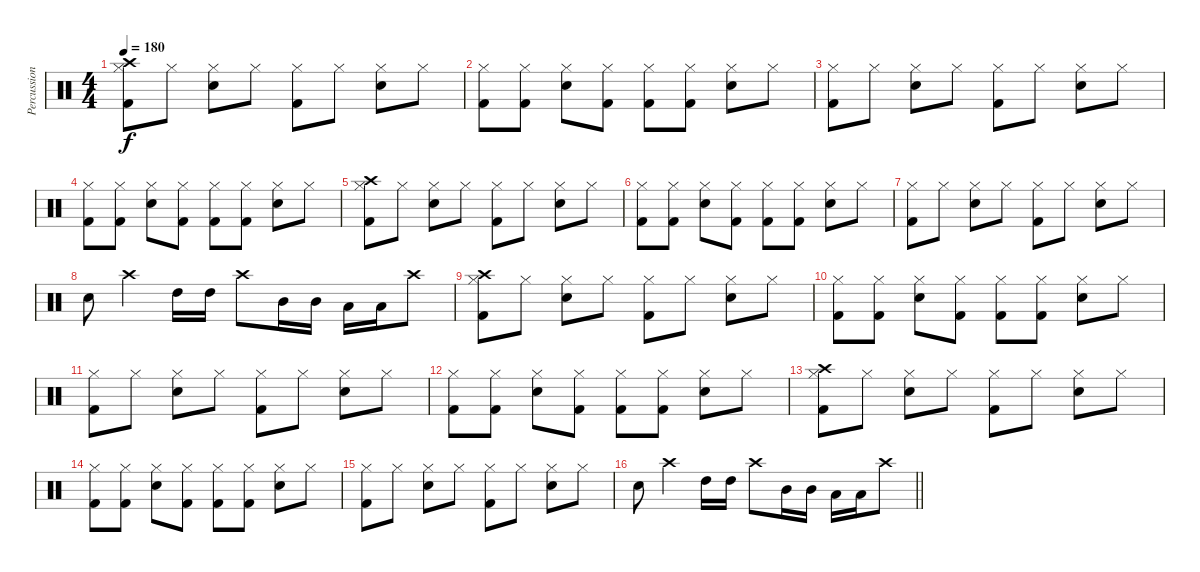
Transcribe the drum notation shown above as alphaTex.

\track ("Percussion" "Percussion") {instrument percussion}
\staff {score}
\articulation defaults
\ts (4 4)
\tempo 180
\clef neutral
\ks c
("Crash high (hit)" "Hi-Hat (closed)" "Kick (hit) 2").8{dy f} "Hi-Hat (closed)".8 ("Hi-Hat (closed)" "Snare (hit) 2").8 "Hi-Hat (closed)".8 ("Hi-Hat (closed)" "Kick (hit) 2").8 "Hi-Hat (closed)".8 ("Hi-Hat (closed)" "Snare (hit) 2").8 "Hi-Hat (closed)".8 |
("Hi-Hat (closed)" "Kick (hit) 2").8 ("Hi-Hat (closed)" "Kick (hit) 2").8 ("Hi-Hat (closed)" "Snare (hit) 2").8 ("Hi-Hat (closed)" "Kick (hit) 2").8 ("Hi-Hat (closed)" "Kick (hit) 2").8 ("Hi-Hat (closed)" "Kick (hit) 2").8 ("Hi-Hat (closed)" "Snare (hit) 2").8 "Hi-Hat (closed)".8 |
("Hi-Hat (closed)" "Kick (hit) 2").8 "Hi-Hat (closed)".8 ("Hi-Hat (closed)" "Snare (hit) 2").8 "Hi-Hat (closed)".8 ("Hi-Hat (closed)" "Kick (hit) 2").8 "Hi-Hat (closed)".8 ("Hi-Hat (closed)" "Snare (hit) 2").8 "Hi-Hat (closed)".8 |
("Hi-Hat (closed)" "Kick (hit) 2").8 ("Hi-Hat (closed)" "Kick (hit) 2").8 ("Hi-Hat (closed)" "Snare (hit) 2").8 ("Hi-Hat (closed)" "Kick (hit) 2").8 ("Hi-Hat (closed)" "Kick (hit) 2").8 ("Hi-Hat (closed)" "Kick (hit) 2").8 ("Hi-Hat (closed)" "Snare (hit) 2").8 "Hi-Hat (closed)".8 |
("Crash high (hit)" "Hi-Hat (closed)" "Kick (hit) 2").8 "Hi-Hat (closed)".8 ("Hi-Hat (closed)" "Snare (hit) 2").8 "Hi-Hat (closed)".8 ("Hi-Hat (closed)" "Kick (hit) 2").8 "Hi-Hat (closed)".8 ("Hi-Hat (closed)" "Snare (hit) 2").8 "Hi-Hat (closed)".8 |
("Hi-Hat (closed)" "Kick (hit) 2").8 ("Hi-Hat (closed)" "Kick (hit) 2").8 ("Hi-Hat (closed)" "Snare (hit) 2").8 ("Hi-Hat (closed)" "Kick (hit) 2").8 ("Hi-Hat (closed)" "Kick (hit) 2").8 ("Hi-Hat (closed)" "Kick (hit) 2").8 ("Hi-Hat (closed)" "Snare (hit) 2").8 "Hi-Hat (closed)".8 |
("Hi-Hat (closed)" "Kick (hit) 2").8 "Hi-Hat (closed)".8 ("Hi-Hat (closed)" "Snare (hit) 2").8 "Hi-Hat (closed)".8 ("Hi-Hat (closed)" "Kick (hit) 2").8 "Hi-Hat (closed)".8 ("Hi-Hat (closed)" "Snare (hit) 2").8 "Hi-Hat (closed)".8 |
"Snare (hit) 2".8 "Crash high (hit)".4 "High Tom (hit)".16 "High Tom (hit)".16 "Crash high (hit)".8 "Mid Tom (hit)".16 "Mid Tom (hit)".16 "Low Tom (hit)".16 "Low Tom (hit)".16 "Crash high (hit)".8 |
("Crash high (hit)" "Hi-Hat (closed)" "Kick (hit) 2").8 "Hi-Hat (closed)".8 ("Hi-Hat (closed)" "Snare (hit) 2").8 "Hi-Hat (closed)".8 ("Hi-Hat (closed)" "Kick (hit) 2").8 "Hi-Hat (closed)".8 ("Hi-Hat (closed)" "Snare (hit) 2").8 "Hi-Hat (closed)".8 |
("Hi-Hat (closed)" "Kick (hit) 2").8 ("Hi-Hat (closed)" "Kick (hit) 2").8 ("Hi-Hat (closed)" "Snare (hit) 2").8 ("Hi-Hat (closed)" "Kick (hit) 2").8 ("Hi-Hat (closed)" "Kick (hit) 2").8 ("Hi-Hat (closed)" "Kick (hit) 2").8 ("Hi-Hat (closed)" "Snare (hit) 2").8 "Hi-Hat (closed)".8 |
("Hi-Hat (closed)" "Kick (hit) 2").8 "Hi-Hat (closed)".8 ("Hi-Hat (closed)" "Snare (hit) 2").8 "Hi-Hat (closed)".8 ("Hi-Hat (closed)" "Kick (hit) 2").8 "Hi-Hat (closed)".8 ("Hi-Hat (closed)" "Snare (hit) 2").8 "Hi-Hat (closed)".8 |
("Hi-Hat (closed)" "Kick (hit) 2").8 ("Hi-Hat (closed)" "Kick (hit) 2").8 ("Hi-Hat (closed)" "Snare (hit) 2").8 ("Hi-Hat (closed)" "Kick (hit) 2").8 ("Hi-Hat (closed)" "Kick (hit) 2").8 ("Hi-Hat (closed)" "Kick (hit) 2").8 ("Hi-Hat (closed)" "Snare (hit) 2").8 "Hi-Hat (closed)".8 |
("Crash high (hit)" "Hi-Hat (closed)" "Kick (hit) 2").8 "Hi-Hat (closed)".8 ("Hi-Hat (closed)" "Snare (hit) 2").8 "Hi-Hat (closed)".8 ("Hi-Hat (closed)" "Kick (hit) 2").8 "Hi-Hat (closed)".8 ("Hi-Hat (closed)" "Snare (hit) 2").8 "Hi-Hat (closed)".8 |
("Hi-Hat (closed)" "Kick (hit) 2").8 ("Hi-Hat (closed)" "Kick (hit) 2").8 ("Hi-Hat (closed)" "Snare (hit) 2").8 ("Hi-Hat (closed)" "Kick (hit) 2").8 ("Hi-Hat (closed)" "Kick (hit) 2").8 ("Hi-Hat (closed)" "Kick (hit) 2").8 ("Hi-Hat (closed)" "Snare (hit) 2").8 "Hi-Hat (closed)".8 |
("Hi-Hat (closed)" "Kick (hit) 2").8 "Hi-Hat (closed)".8 ("Hi-Hat (closed)" "Snare (hit) 2").8 "Hi-Hat (closed)".8 ("Hi-Hat (closed)" "Kick (hit) 2").8 "Hi-Hat (closed)".8 ("Hi-Hat (closed)" "Snare (hit) 2").8 "Hi-Hat (closed)".8 |
\barLineRight lightlight "Snare (hit) 2".8 "Crash high (hit)".4 "High Tom (hit)".16 "High Tom (hit)".16 "Crash high (hit)".8 "Mid Tom (hit)".16 "Mid Tom (hit)".16 "Low Tom (hit)".16 "Low Tom (hit)".16 "Crash high (hit)".8
